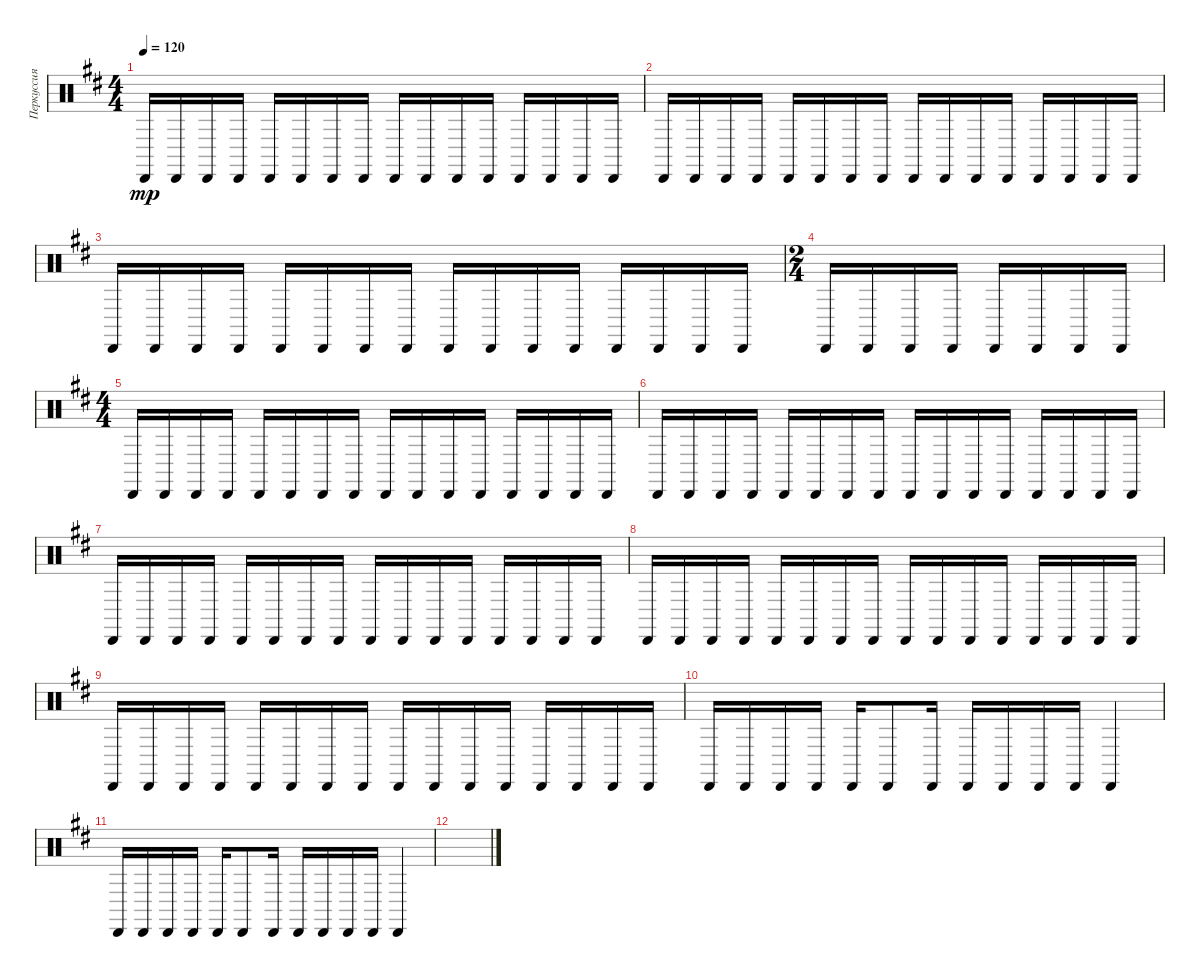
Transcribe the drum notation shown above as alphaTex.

\track ("Перкуссия" "Перкуссия") {instrument percussion}
\staff {score}
\articulation defaults
\ts (4 4)
\tempo 120
\clef neutral
\ks bminor "Cabasa (hit)".16{dy mp} "Cabasa (hit)".16 "Cabasa (hit)".16 "Cabasa (hit)".16 "Cabasa (hit)".16 "Cabasa (hit)".16 "Cabasa (hit)".16 "Cabasa (hit)".16 "Cabasa (hit)".16 "Cabasa (hit)".16 "Cabasa (hit)".16 "Cabasa (hit)".16 "Cabasa (hit)".16 "Cabasa (hit)".16 "Cabasa (hit)".16 "Cabasa (hit)".16
|
"Cabasa (hit)".16 "Cabasa (hit)".16 "Cabasa (hit)".16 "Cabasa (hit)".16 "Cabasa (hit)".16 "Cabasa (hit)".16 "Cabasa (hit)".16 "Cabasa (hit)".16 "Cabasa (hit)".16 "Cabasa (hit)".16 "Cabasa (hit)".16 "Cabasa (hit)".16 "Cabasa (hit)".16 "Cabasa (hit)".16 "Cabasa (hit)".16 "Cabasa (hit)".16 |
"Cabasa (hit)".16 "Cabasa (hit)".16 "Cabasa (hit)".16 "Cabasa (hit)".16 "Cabasa (hit)".16 "Cabasa (hit)".16 "Cabasa (hit)".16 "Cabasa (hit)".16 "Cabasa (hit)".16 "Cabasa (hit)".16 "Cabasa (hit)".16 "Cabasa (hit)".16 "Cabasa (hit)".16 "Cabasa (hit)".16 "Cabasa (hit)".16 "Cabasa (hit)".16 |
\ts (2 4)
"Cabasa (hit)".16 "Cabasa (hit)".16 "Cabasa (hit)".16 "Cabasa (hit)".16 "Cabasa (hit)".16 "Cabasa (hit)".16 "Cabasa (hit)".16 "Cabasa (hit)".16 |
\ts (4 4)
"Cabasa (hit)".16 "Cabasa (hit)".16 "Cabasa (hit)".16 "Cabasa (hit)".16 "Cabasa (hit)".16 "Cabasa (hit)".16 "Cabasa (hit)".16 "Cabasa (hit)".16 "Cabasa (hit)".16 "Cabasa (hit)".16 "Cabasa (hit)".16 "Cabasa (hit)".16 "Cabasa (hit)".16 "Cabasa (hit)".16 "Cabasa (hit)".16 "Cabasa (hit)".16 |
"Cabasa (hit)".16 "Cabasa (hit)".16 "Cabasa (hit)".16 "Cabasa (hit)".16 "Cabasa (hit)".16 "Cabasa (hit)".16 "Cabasa (hit)".16 "Cabasa (hit)".16 "Cabasa (hit)".16 "Cabasa (hit)".16 "Cabasa (hit)".16 "Cabasa (hit)".16 "Cabasa (hit)".16 "Cabasa (hit)".16 "Cabasa (hit)".16 "Cabasa (hit)".16 |
"Cabasa (hit)".16 "Cabasa (hit)".16 "Cabasa (hit)".16 "Cabasa (hit)".16 "Cabasa (hit)".16 "Cabasa (hit)".16 "Cabasa (hit)".16 "Cabasa (hit)".16 "Cabasa (hit)".16 "Cabasa (hit)".16 "Cabasa (hit)".16 "Cabasa (hit)".16 "Cabasa (hit)".16 "Cabasa (hit)".16 "Cabasa (hit)".16 "Cabasa (hit)".16 |
"Cabasa (hit)".16 "Cabasa (hit)".16 "Cabasa (hit)".16 "Cabasa (hit)".16 "Cabasa (hit)".16 "Cabasa (hit)".16 "Cabasa (hit)".16 "Cabasa (hit)".16 "Cabasa (hit)".16 "Cabasa (hit)".16 "Cabasa (hit)".16 "Cabasa (hit)".16 "Cabasa (hit)".16 "Cabasa (hit)".16 "Cabasa (hit)".16 "Cabasa (hit)".16 |
\ks d "Cabasa (hit)".16 "Cabasa (hit)".16 "Cabasa (hit)".16 "Cabasa (hit)".16 "Cabasa (hit)".16 "Cabasa (hit)".16 "Cabasa (hit)".16 "Cabasa (hit)".16 "Cabasa (hit)".16 "Cabasa (hit)".16 "Cabasa (hit)".16 "Cabasa (hit)".16 "Cabasa (hit)".16 "Cabasa (hit)".16 "Cabasa (hit)".16 "Cabasa (hit)".16
|
"Cabasa (hit)".16 "Cabasa (hit)".16 "Cabasa (hit)".16 "Cabasa (hit)".16 "Cabasa (hit)".16 "Cabasa (hit)".8 "Cabasa (hit)".16 "Cabasa (hit)".16 "Cabasa (hit)".16 "Cabasa (hit)".16 "Cabasa (hit)".16 "Cabasa (hit)".4 |
"Cabasa (hit)".16 "Cabasa (hit)".16 "Cabasa (hit)".16 "Cabasa (hit)".16 "Cabasa (hit)".16 "Cabasa (hit)".8 "Cabasa (hit)".16 "Cabasa (hit)".16 "Cabasa (hit)".16 "Cabasa (hit)".16 "Cabasa (hit)".16 "Cabasa (hit)".4 |
\ks bminor
